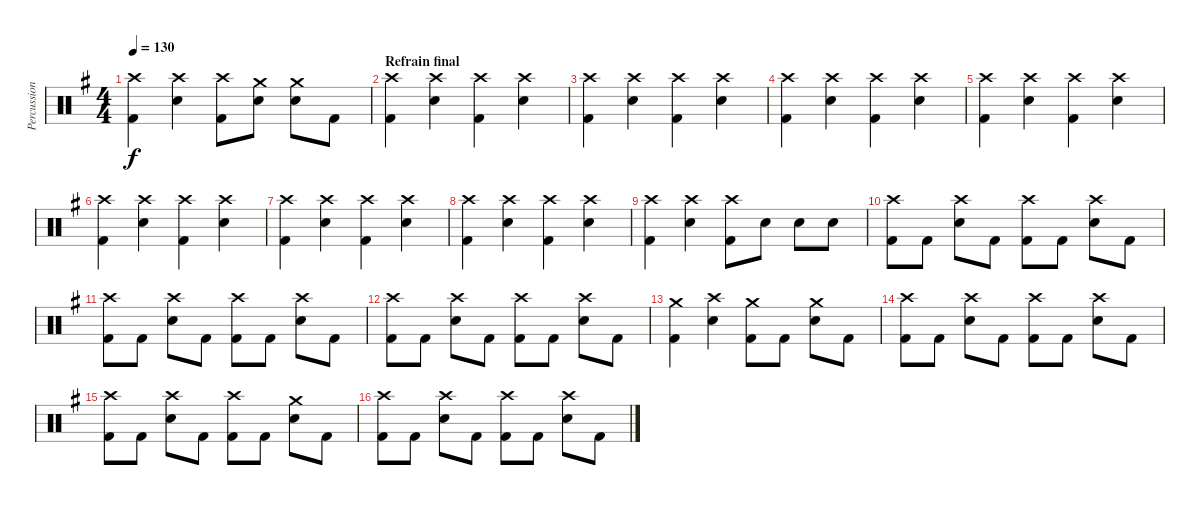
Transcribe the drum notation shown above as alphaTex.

\track ("Percussions" "Percussion") {instrument percussion}
\staff {score}
\articulation defaults
\ts (4 4)
\tempo 130
\clef neutral
\ks eminor
("Crash high (hit)" "Kick (hit) 2").4{dy f} ("Crash high (hit)" "Electric Snare (hit)").4 ("Crash high (hit)" "Kick (hit) 2").8 ("Crash medium (hit)" "Electric Snare (hit)").8 ("Crash medium (hit)" "Electric Snare (hit)").8 "Kick (hit) 2".8 |
\section ("" "Refrain final")
("Crash high (hit)" "Kick (hit) 2").4 ("Crash high (hit)" "Electric Snare (hit)").4 ("Crash high (hit)" "Kick (hit) 2").4 ("Crash high (hit)" "Electric Snare (hit)").4 |
("Crash high (hit)" "Kick (hit) 2").4 ("Crash high (hit)" "Electric Snare (hit)").4 ("Crash high (hit)" "Kick (hit) 2").4 ("Crash high (hit)" "Electric Snare (hit)").4 |
("Crash high (hit)" "Kick (hit) 2").4 ("Crash high (hit)" "Electric Snare (hit)").4 ("Crash high (hit)" "Kick (hit) 2").4 ("Crash high (hit)" "Electric Snare (hit)").4 |
("Crash high (hit)" "Kick (hit) 2").4 ("Crash high (hit)" "Electric Snare (hit)").4 ("Crash high (hit)" "Kick (hit) 2").4 ("Crash high (hit)" "Electric Snare (hit)").4 |
("Crash high (hit)" "Kick (hit) 2").4 ("Crash high (hit)" "Electric Snare (hit)").4 ("Crash high (hit)" "Kick (hit) 2").4 ("Crash high (hit)" "Electric Snare (hit)").4 |
("Crash high (hit)" "Kick (hit) 2").4 ("Crash high (hit)" "Electric Snare (hit)").4 ("Crash high (hit)" "Kick (hit) 2").4 ("Crash high (hit)" "Electric Snare (hit)").4 |
("Crash high (hit)" "Kick (hit) 2").4 ("Crash high (hit)" "Electric Snare (hit)").4 ("Crash high (hit)" "Kick (hit) 2").4 ("Crash high (hit)" "Electric Snare (hit)").4 |
("Crash high (hit)" "Kick (hit) 2").4 ("Crash high (hit)" "Electric Snare (hit)").4 ("Crash high (hit)" "Kick (hit) 2").8 "Electric Snare (hit)".8 "Electric Snare (hit)".8 "Electric Snare (hit)".8 |
("Crash high (hit)" "Kick (hit) 2").8 "Kick (hit) 2".8 ("Crash high (hit)" "Electric Snare (hit)").8 "Kick (hit) 2".8 ("Crash high (hit)" "Kick (hit) 2").8 "Kick (hit) 2".8 ("Crash high (hit)" "Electric Snare (hit)").8 "Kick (hit) 2".8 |
("Crash high (hit)" "Kick (hit) 2").8 "Kick (hit) 2".8 ("Crash high (hit)" "Electric Snare (hit)").8 "Kick (hit) 2".8 ("Crash high (hit)" "Kick (hit) 2").8 "Kick (hit) 2".8 ("Crash high (hit)" "Electric Snare (hit)").8 "Kick (hit) 2".8 |
("Crash high (hit)" "Kick (hit) 2").8 "Kick (hit) 2".8 ("Crash high (hit)" "Electric Snare (hit)").8 "Kick (hit) 2".8 ("Crash high (hit)" "Kick (hit) 2").8 "Kick (hit) 2".8 ("Crash high (hit)" "Electric Snare (hit)").8 "Kick (hit) 2".8 |
("Crash medium (hit)" "Kick (hit) 2").4 ("Crash high (hit)" "Electric Snare (hit)").4 ("Crash medium (hit)" "Kick (hit) 2").8 "Kick (hit) 2".8 ("Crash medium (hit)" "Electric Snare (hit)").8 "Kick (hit) 2".8 |
("Crash high (hit)" "Kick (hit) 2").8 "Kick (hit) 2".8 ("Crash high (hit)" "Electric Snare (hit)").8 "Kick (hit) 2".8 ("Crash high (hit)" "Kick (hit) 2").8 "Kick (hit) 2".8 ("Crash high (hit)" "Electric Snare (hit)").8 "Kick (hit) 2".8 |
("Crash high (hit)" "Kick (hit) 2").8 "Kick (hit) 2".8 ("Crash high (hit)" "Electric Snare (hit)").8 "Kick (hit) 2".8 ("Crash high (hit)" "Kick (hit) 2").8 "Kick (hit) 2".8 ("Crash medium (hit)" "Electric Snare (hit)").8 "Kick (hit) 2".8 |
("Crash high (hit)" "Kick (hit) 2").8 "Kick (hit) 2".8 ("Crash high (hit)" "Electric Snare (hit)").8 "Kick (hit) 2".8 ("Crash high (hit)" "Kick (hit) 2").8 "Kick (hit) 2".8 ("Crash high (hit)" "Electric Snare (hit)").8 "Kick (hit) 2".8
